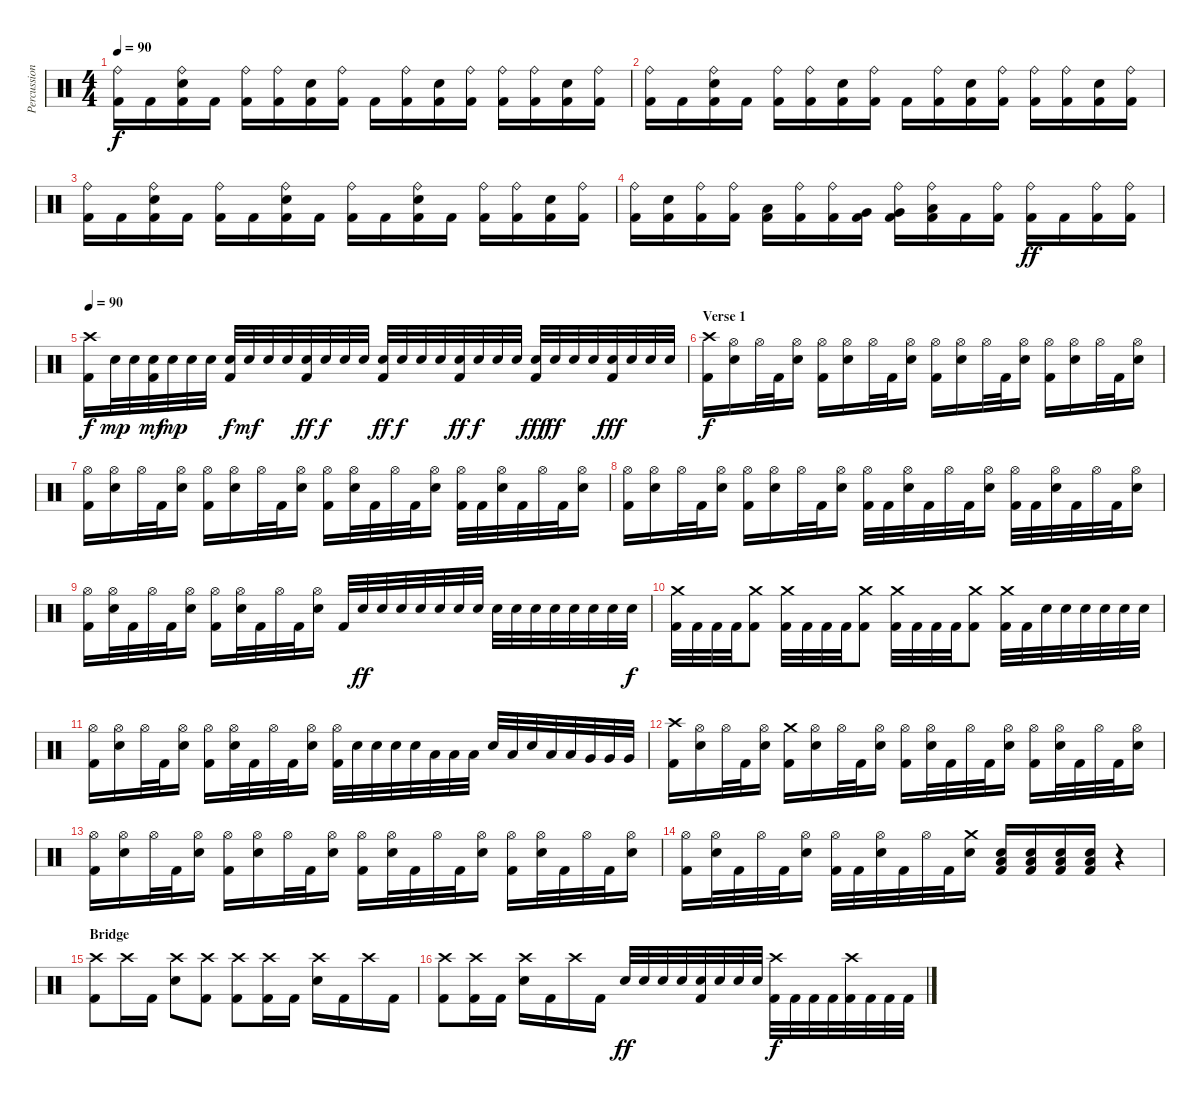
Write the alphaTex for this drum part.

\track ("Percussion" "Percussion") {instrument percussion}
\staff {score}
\articulation defaults
\ts (4 4)
\tempo 90
\clef neutral
\ks c
("Ride (bell)" "Kick (hit) 2").16{dy f} "Kick (hit) 2".16 ("Ride (bell)" "Electric Snare (hit)" "Kick (hit) 2").16 "Kick (hit) 2".16 ("Ride (bell)" "Kick (hit) 2").16 ("Ride (bell)" "Kick (hit) 2").16 ("Electric Snare (hit)" "Kick (hit) 2").16 ("Ride (bell)" "Kick (hit) 2").16 "Kick (hit) 2".16 ("Ride (bell)" "Kick (hit) 2").16 ("Electric Snare (hit)" "Kick (hit) 2").16 ("Ride (bell)" "Kick (hit) 2").16 ("Ride (bell)" "Kick (hit) 2").16 ("Ride (bell)" "Kick (hit) 2").16 ("Electric Snare (hit)" "Kick (hit) 2").16 ("Ride (bell)" "Kick (hit) 2").16 |
("Ride (bell)" "Kick (hit) 2").16 "Kick (hit) 2".16 ("Ride (bell)" "Electric Snare (hit)" "Kick (hit) 2").16 "Kick (hit) 2".16 ("Ride (bell)" "Kick (hit) 2").16 ("Ride (bell)" "Kick (hit) 2").16 ("Electric Snare (hit)" "Kick (hit) 2").16 ("Ride (bell)" "Kick (hit) 2").16 "Kick (hit) 2".16 ("Ride (bell)" "Kick (hit) 2").16 ("Electric Snare (hit)" "Kick (hit) 2").16 ("Ride (bell)" "Kick (hit) 2").16 ("Ride (bell)" "Kick (hit) 2").16 ("Ride (bell)" "Kick (hit) 2").16 ("Electric Snare (hit)" "Kick (hit) 2").16 ("Ride (bell)" "Kick (hit) 2").16 |
("Ride (bell)" "Kick (hit) 2").16 "Kick (hit) 2".16 ("Ride (bell)" "Electric Snare (hit)" "Kick (hit) 2").16 "Kick (hit) 2".16 ("Ride (bell)" "Kick (hit) 2").16 "Kick (hit) 2".16 ("Ride (bell)" "Electric Snare (hit)" "Kick (hit) 2").16 "Kick (hit) 2".16 ("Ride (bell)" "Kick (hit) 2").16 "Kick (hit) 2".16 ("Ride (bell)" "Electric Snare (hit)" "Kick (hit) 2").16 "Kick (hit) 2".16 ("Ride (bell)" "Kick (hit) 2").16 ("Ride (bell)" "Kick (hit) 2").16 ("Electric Snare (hit)" "Kick (hit) 2").16 ("Ride (bell)" "Kick (hit) 2").16 |
("Ride (bell)" "Kick (hit) 2").16 ("Electric Snare (hit)" "Kick (hit) 2").16 ("Ride (bell)" "Kick (hit) 2").16 ("Ride (bell)" "Kick (hit) 2").16 ("Low Tom (hit)" "Kick (hit) 2").16 ("Ride (bell)" "Kick (hit) 2").16 ("Ride (bell)" "Kick (hit) 2").16 ("Very Low Tom (hit)" "Kick (hit) 2").16 ("Ride (bell)" "Very Low Tom (hit)" "Kick (hit) 2").16 ("Ride (bell)" "Low Floor Tom (hit)" "Kick (hit) 2").16 "Kick (hit) 2".16 ("Ride (bell)" "Kick (hit) 2").16 ("Ride (bell)" "Kick (hit) 2").16{dy ff} "Kick (hit) 2".16 ("Ride (bell)" "Kick (hit) 2").16 ("Ride (bell)" "Kick (hit) 2").16 |
\tempo 90
("Crash high (hit)" "Kick (hit) 2").16{dy f} "Electric Snare (hit)".32{dy mp} "Electric Snare (hit)".32 ("Electric Snare (hit)" "Kick (hit) 2").32{dy mf} "Electric Snare (hit)".32{dy mp} "Electric Snare (hit)".32 "Electric Snare (hit)".32 ("Electric Snare (hit)" "Kick (hit) 2").32{dy f} "Electric Snare (hit)".32{dy mf} "Electric Snare (hit)".32 "Electric Snare (hit)".32 ("Electric Snare (hit)" "Kick (hit) 2").32{dy ff} "Electric Snare (hit)".32{dy f} "Electric Snare (hit)".32 "Electric Snare (hit)".32 ("Electric Snare (hit)" "Kick (hit) 2").32{dy ff} "Electric Snare (hit)".32{dy f} "Electric Snare (hit)".32 "Electric Snare (hit)".32 ("Electric Snare (hit)" "Kick (hit) 2").32{dy ff} "Electric Snare (hit)".32{dy f} "Electric Snare (hit)".32 "Electric Snare (hit)".32 ("Electric Snare (hit)" "Kick (hit) 2").32{dy fff} "Electric Snare (hit)".32{dy ff} "Electric Snare (hit)".32 "Electric Snare (hit)".32 ("Electric Snare (hit)" "Kick (hit) 2").32{dy fff} "Electric Snare (hit)".32 "Electric Snare (hit)".32 "Electric Snare (hit)".32 |
\section ("" "Verse 1")
("Crash high (hit)" "Kick (hit) 2").16{dy f} ("Hi-Hat (open)" "Electric Snare (hit)").16 "Hi-Hat (open)".32 "Kick (hit) 2".32 ("Hi-Hat (open)" "Electric Snare (hit)").16 ("Hi-Hat (open)" "Kick (hit) 2").16 ("Hi-Hat (open)" "Electric Snare (hit)").16 "Hi-Hat (open)".32 "Kick (hit) 2".32 ("Hi-Hat (open)" "Electric Snare (hit)").16 ("Hi-Hat (open)" "Kick (hit) 2").16 ("Hi-Hat (open)" "Electric Snare (hit)").16 "Hi-Hat (open)".32 "Kick (hit) 2".32 ("Hi-Hat (open)" "Electric Snare (hit)").16 ("Hi-Hat (open)" "Kick (hit) 2").16 ("Hi-Hat (open)" "Electric Snare (hit)").16 "Hi-Hat (open)".32 "Kick (hit) 2".32 ("Hi-Hat (open)" "Electric Snare (hit)").16 |
("Hi-Hat (open)" "Kick (hit) 2").16 ("Hi-Hat (open)" "Electric Snare (hit)").16 "Hi-Hat (open)".32 "Kick (hit) 2".32 ("Hi-Hat (open)" "Electric Snare (hit)").16 ("Hi-Hat (open)" "Kick (hit) 2").16 ("Hi-Hat (open)" "Electric Snare (hit)").16 "Hi-Hat (open)".32 "Kick (hit) 2".32 ("Hi-Hat (open)" "Electric Snare (hit)").16 ("Hi-Hat (open)" "Kick (hit) 2").16 ("Hi-Hat (open)" "Electric Snare (hit)").32 "Kick (hit) 2".32 "Hi-Hat (open)".32 "Kick (hit) 2".32 ("Hi-Hat (open)" "Electric Snare (hit)").16 ("Hi-Hat (open)" "Kick (hit) 2").32 "Kick (hit) 2".32 ("Hi-Hat (open)" "Electric Snare (hit)").32 "Kick (hit) 2".32 "Hi-Hat (open)".32 "Kick (hit) 2".32 ("Hi-Hat (open)" "Electric Snare (hit)").16 |
("Hi-Hat (open)" "Kick (hit) 2").16 ("Hi-Hat (open)" "Electric Snare (hit)").16 "Hi-Hat (open)".32 "Kick (hit) 2".32 ("Hi-Hat (open)" "Electric Snare (hit)").16 ("Hi-Hat (open)" "Kick (hit) 2").16 ("Hi-Hat (open)" "Electric Snare (hit)").16 "Hi-Hat (open)".32 "Kick (hit) 2".32 ("Hi-Hat (open)" "Electric Snare (hit)").16 ("Hi-Hat (open)" "Kick (hit) 2").32 "Kick (hit) 2".32 ("Hi-Hat (open)" "Electric Snare (hit)").32 "Kick (hit) 2".32 "Hi-Hat (open)".32 "Kick (hit) 2".32 ("Hi-Hat (open)" "Electric Snare (hit)").16 ("Hi-Hat (open)" "Kick (hit) 2").32 "Kick (hit) 2".32 ("Hi-Hat (open)" "Electric Snare (hit)").32 "Kick (hit) 2".32 "Hi-Hat (open)".32 "Kick (hit) 2".32 ("Hi-Hat (open)" "Electric Snare (hit)").16 |
("Hi-Hat (open)" "Kick (hit) 2").16 ("Hi-Hat (open)" "Electric Snare (hit)").32 "Kick (hit) 2".32 "Hi-Hat (open)".32 "Kick (hit) 2".32 ("Hi-Hat (open)" "Electric Snare (hit)").16 ("Hi-Hat (open)" "Kick (hit) 2").16 ("Hi-Hat (open)" "Electric Snare (hit)").32 "Kick (hit) 2".32 "Hi-Hat (open)".32 "Kick (hit) 2".32 ("Hi-Hat (open)" "Electric Snare (hit)").16 "Kick (hit) 2".32 "Electric Snare (hit)".32{dy ff} "Electric Snare (hit)".32 "Electric Snare (hit)".32 "Electric Snare (hit)".32 "Electric Snare (hit)".32 "Electric Snare (hit)".32 "Electric Snare (hit)".32 "Electric Snare (hit)".32 "Electric Snare (hit)".32 "Electric Snare (hit)".32 "Electric Snare (hit)".32 "Electric Snare (hit)".32 "Electric Snare (hit)".32 "Electric Snare (hit)".32 "Electric Snare (hit)".32{dy f} |
("Crash medium (hit)" "Kick (hit) 2").32 "Kick (hit) 2".32 "Kick (hit) 2".32 "Kick (hit) 2".32 ("Crash medium (hit)" "Kick (hit) 2").8 ("Crash medium (hit)" "Kick (hit) 2").32 "Kick (hit) 2".32 "Kick (hit) 2".32 "Kick (hit) 2".32 ("Crash medium (hit)" "Kick (hit) 2").8 ("Crash medium (hit)" "Kick (hit) 2").32 "Kick (hit) 2".32 "Kick (hit) 2".32 "Kick (hit) 2".32 ("Crash medium (hit)" "Kick (hit) 2").8 ("Crash medium (hit)" "Kick (hit) 2").32 "Kick (hit) 2".32 "Electric Snare (hit)".32 "Electric Snare (hit)".32 "Electric Snare (hit)".32 "Electric Snare (hit)".32 "Electric Snare (hit)".32 "Electric Snare (hit)".32 |
("Hi-Hat (open)" "Kick (hit) 2").16 ("Hi-Hat (open)" "Electric Snare (hit)").16 "Hi-Hat (open)".32 "Kick (hit) 2".32 ("Hi-Hat (open)" "Electric Snare (hit)").16 ("Hi-Hat (open)" "Kick (hit) 2").16 ("Hi-Hat (open)" "Electric Snare (hit)").32 "Kick (hit) 2".32 "Hi-Hat (open)".32 "Kick (hit) 2".32 ("Hi-Hat (open)" "Electric Snare (hit)").16 ("Hi-Hat (open)" "Kick (hit) 2").32 "Electric Snare (hit)".32 "Electric Snare (hit)".32 "Electric Snare (hit)".32 "Electric Snare (hit)".32 "Low Tom (hit)".32 "Low Tom (hit)".32 "Low Tom (hit)".32 "Electric Snare (hit)".32 "Low Tom (hit)".32 "Electric Snare (hit)".32 "Low Tom (hit)".32 "Low Tom (hit)".32 "Very Low Tom (hit)".32 "Very Low Tom (hit)".32 "Very Low Tom (hit)".32 |
("Crash high (hit)" "Kick (hit) 2").16 ("Hi-Hat (open)" "Electric Snare (hit)").16 "Hi-Hat (open)".32 "Kick (hit) 2".32 ("Hi-Hat (open)" "Electric Snare (hit)").16 ("Crash medium (hit)" "Kick (hit) 2").16 ("Hi-Hat (open)" "Electric Snare (hit)").16 "Hi-Hat (open)".32 "Kick (hit) 2".32 ("Hi-Hat (open)" "Electric Snare (hit)").16 ("Hi-Hat (open)" "Kick (hit) 2").16 ("Hi-Hat (open)" "Electric Snare (hit)").32 "Kick (hit) 2".32 "Hi-Hat (open)".32 "Kick (hit) 2".32 ("Hi-Hat (open)" "Electric Snare (hit)").16 ("Hi-Hat (open)" "Kick (hit) 2").16 ("Hi-Hat (open)" "Electric Snare (hit)").32 "Kick (hit) 2".32 "Hi-Hat (open)".32 "Kick (hit) 2".32 ("Hi-Hat (open)" "Electric Snare (hit)").16 |
("Hi-Hat (open)" "Kick (hit) 2").16 ("Hi-Hat (open)" "Electric Snare (hit)").16 "Hi-Hat (open)".32 "Kick (hit) 2".32 ("Hi-Hat (open)" "Electric Snare (hit)").16 ("Hi-Hat (open)" "Kick (hit) 2").16 ("Hi-Hat (open)" "Electric Snare (hit)").16 "Hi-Hat (open)".32 "Kick (hit) 2".32 ("Hi-Hat (open)" "Electric Snare (hit)").16 ("Hi-Hat (open)" "Kick (hit) 2").16 ("Hi-Hat (open)" "Electric Snare (hit)").32 "Kick (hit) 2".32 "Hi-Hat (open)".32 "Kick (hit) 2".32 ("Hi-Hat (open)" "Electric Snare (hit)").16 ("Hi-Hat (open)" "Kick (hit) 2").16 ("Hi-Hat (open)" "Electric Snare (hit)").32 "Kick (hit) 2".32 "Hi-Hat (open)".32 "Kick (hit) 2".32 ("Hi-Hat (open)" "Electric Snare (hit)").16 |
("Hi-Hat (open)" "Kick (hit) 2").16 ("Hi-Hat (open)" "Electric Snare (hit)").32 "Kick (hit) 2".32 "Hi-Hat (open)".32 "Kick (hit) 2".32 ("Hi-Hat (open)" "Electric Snare (hit)").16 ("Hi-Hat (open)" "Kick (hit) 2").32 "Kick (hit) 2".32 ("Hi-Hat (open)" "Electric Snare (hit)").32 "Kick (hit) 2".32 "Hi-Hat (open)".32 "Kick (hit) 2".32 ("Crash medium (hit)" "Electric Snare (hit)").16 ("Electric Snare (hit)" "Low Floor Tom (hit)" "Kick (hit) 2").16 ("Electric Snare (hit)" "Low Floor Tom (hit)" "Kick (hit) 2").16 ("Electric Snare (hit)" "Low Floor Tom (hit)" "Kick (hit) 2").16 ("Electric Snare (hit)" "Low Floor Tom (hit)" "Kick (hit) 2").16 r.4 |
\section ("" "Bridge")
("Crash high (hit)" "Kick (hit) 2").8 "Crash high (hit)".16 "Kick (hit) 2".16 ("Crash high (hit)" "Electric Snare (hit)").8 ("Crash high (hit)" "Kick (hit) 2").8 ("Crash high (hit)" "Kick (hit) 2").8 ("Crash high (hit)" "Kick (hit) 2").16 "Kick (hit) 2".16 ("Crash high (hit)" "Electric Snare (hit)").16 "Kick (hit) 2".16 "Crash high (hit)".16 "Kick (hit) 2".16 |
("Crash high (hit)" "Kick (hit) 2").8 ("Crash high (hit)" "Kick (hit) 2").16 "Kick (hit) 2".16 ("Crash high (hit)" "Electric Snare (hit)").16 "Kick (hit) 2".16 "Crash high (hit)".16 "Kick (hit) 2".16 "Electric Snare (hit)".32{dy ff} "Electric Snare (hit)".32 "Electric Snare (hit)".32 "Electric Snare (hit)".32 ("Electric Snare (hit)" "Kick (hit) 2").32 "Electric Snare (hit)".32 "Electric Snare (hit)".32 "Electric Snare (hit)".32 ("Crash high (hit)" "Kick (hit) 2").32{dy f} "Kick (hit) 2".32 "Kick (hit) 2".32 "Kick (hit) 2".32 ("Crash high (hit)" "Kick (hit) 2").32 "Kick (hit) 2".32 "Kick (hit) 2".32 "Kick (hit) 2".32
